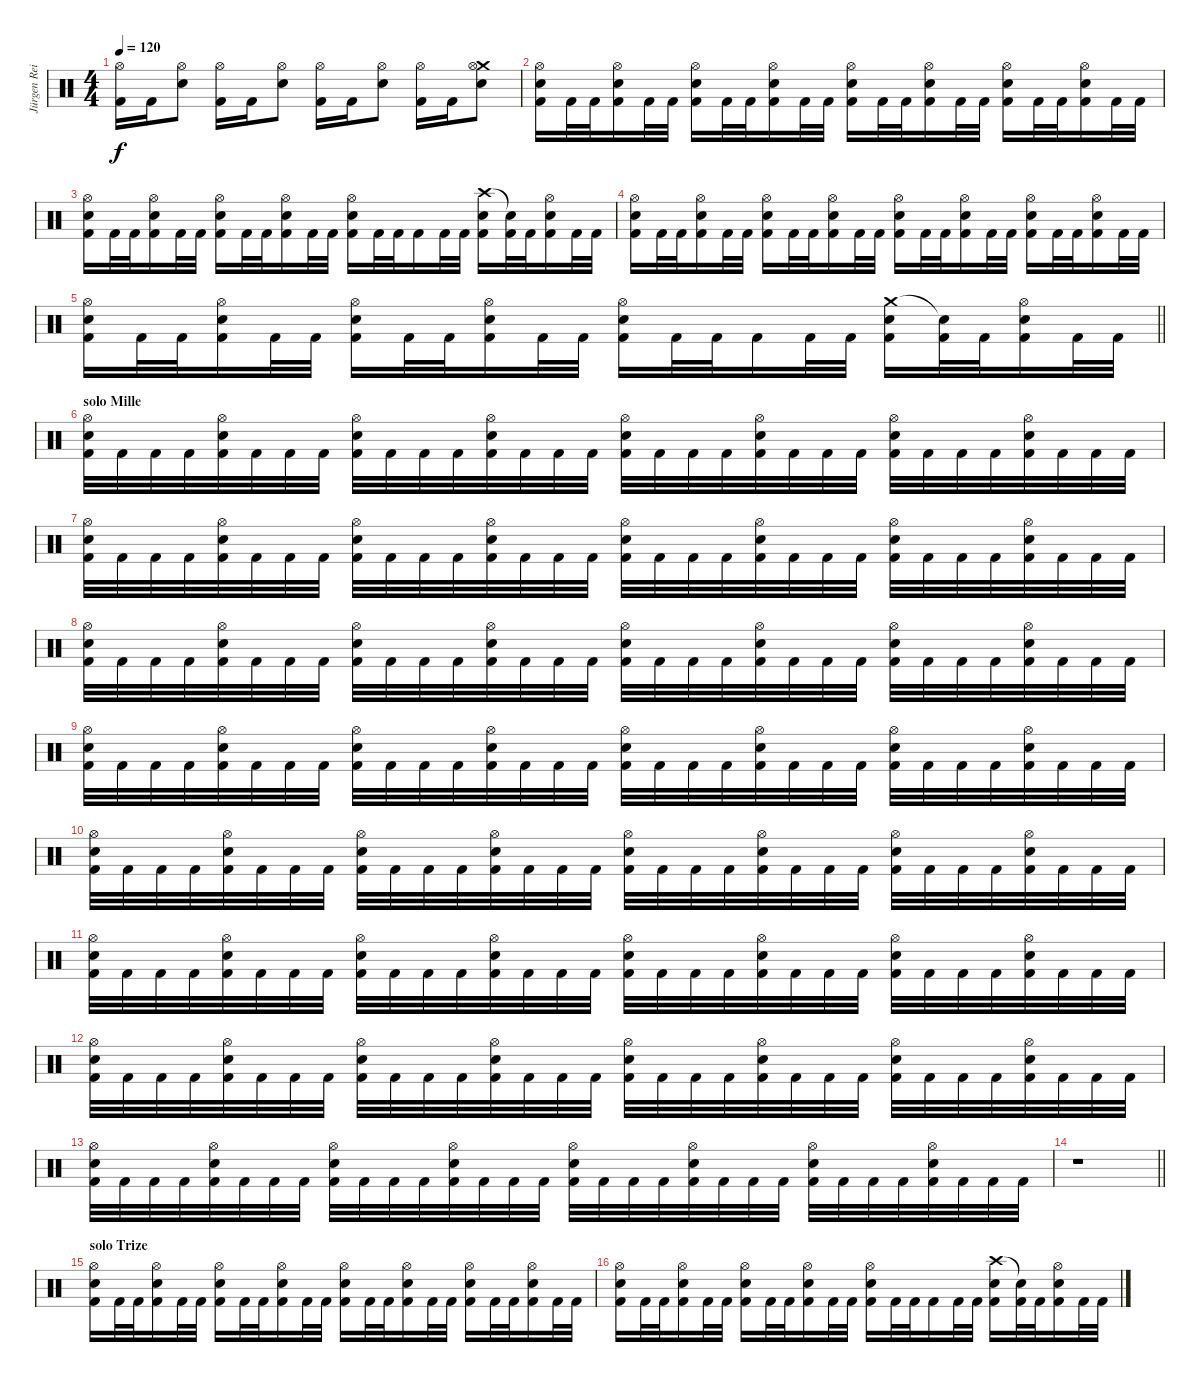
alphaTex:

\track ("Jürgen Reil" "Jürgen Rei") {instrument percussion}
\staff {score}
\articulation defaults
\ts (4 4)
\tempo 120
\clef neutral
\ks c
("Hi-Hat (open)" "Kick (hit) 2").16{dy f} "Kick (hit) 2".16 ("Hi-Hat (open)" "Electric Snare (hit)").8 ("Hi-Hat (open)" "Kick (hit) 2").16 "Kick (hit) 2".16 ("Hi-Hat (open)" "Electric Snare (hit)").8 ("Hi-Hat (open)" "Kick (hit) 2").16 "Kick (hit) 2".16 ("Hi-Hat (open)" "Electric Snare (hit)").8 ("Hi-Hat (open)" "Kick (hit) 2").16 "Kick (hit) 2".16 ("Crash medium (hit)" "Hi-Hat (open)" "Electric Snare (hit)").8 |
("Hi-Hat (open)" "Electric Snare (hit)" "Kick (hit) 2").16 "Kick (hit) 2".32 "Kick (hit) 2".32 ("Hi-Hat (open)" "Electric Snare (hit)" "Kick (hit) 2").16 "Kick (hit) 2".32 "Kick (hit) 2".32 ("Hi-Hat (open)" "Electric Snare (hit)" "Kick (hit) 2").16 "Kick (hit) 2".32 "Kick (hit) 2".32 ("Hi-Hat (open)" "Electric Snare (hit)" "Kick (hit) 2").16 "Kick (hit) 2".32 "Kick (hit) 2".32 ("Hi-Hat (open)" "Electric Snare (hit)" "Kick (hit) 2").16 "Kick (hit) 2".32 "Kick (hit) 2".32 ("Hi-Hat (open)" "Electric Snare (hit)" "Kick (hit) 2").16 "Kick (hit) 2".32 "Kick (hit) 2".32 ("Hi-Hat (open)" "Electric Snare (hit)" "Kick (hit) 2").16 "Kick (hit) 2".32 "Kick (hit) 2".32 ("Hi-Hat (open)" "Electric Snare (hit)" "Kick (hit) 2").16 "Kick (hit) 2".32 "Kick (hit) 2".32 |
("Hi-Hat (open)" "Electric Snare (hit)" "Kick (hit) 2").16 "Kick (hit) 2".32 "Kick (hit) 2".32 ("Hi-Hat (open)" "Electric Snare (hit)" "Kick (hit) 2").16 "Kick (hit) 2".32 "Kick (hit) 2".32 ("Hi-Hat (open)" "Electric Snare (hit)" "Kick (hit) 2").16 "Kick (hit) 2".32 "Kick (hit) 2".32 ("Hi-Hat (open)" "Electric Snare (hit)" "Kick (hit) 2").16 "Kick (hit) 2".32 "Kick (hit) 2".32 ("Hi-Hat (open)" "Electric Snare (hit)" "Kick (hit) 2").16 "Kick (hit) 2".32 "Kick (hit) 2".32 "Kick (hit) 2".16 "Kick (hit) 2".32 "Kick (hit) 2".32 ("Crash high (hit)" "Electric Snare (hit)" "Kick (hit) 2").16 ("Snare (hit)"{t} "Kick (hit) 2").32 "Kick (hit) 2".32 ("Hi-Hat (open)" "Electric Snare (hit)" "Kick (hit) 2").16 "Kick (hit) 2".32 "Kick (hit) 2".32 |
("Hi-Hat (open)" "Electric Snare (hit)" "Kick (hit) 2").16 "Kick (hit) 2".32 "Kick (hit) 2".32 ("Hi-Hat (open)" "Electric Snare (hit)" "Kick (hit) 2").16 "Kick (hit) 2".32 "Kick (hit) 2".32 ("Hi-Hat (open)" "Electric Snare (hit)" "Kick (hit) 2").16 "Kick (hit) 2".32 "Kick (hit) 2".32 ("Hi-Hat (open)" "Electric Snare (hit)" "Kick (hit) 2").16 "Kick (hit) 2".32 "Kick (hit) 2".32 ("Hi-Hat (open)" "Electric Snare (hit)" "Kick (hit) 2").16 "Kick (hit) 2".32 "Kick (hit) 2".32 ("Hi-Hat (open)" "Electric Snare (hit)" "Kick (hit) 2").16 "Kick (hit) 2".32 "Kick (hit) 2".32 ("Hi-Hat (open)" "Electric Snare (hit)" "Kick (hit) 2").16 "Kick (hit) 2".32 "Kick (hit) 2".32 ("Hi-Hat (open)" "Electric Snare (hit)" "Kick (hit) 2").16 "Kick (hit) 2".32 "Kick (hit) 2".32 |
\barLineRight lightlight
("Hi-Hat (open)" "Electric Snare (hit)" "Kick (hit) 2").16 "Kick (hit) 2".32 "Kick (hit) 2".32 ("Hi-Hat (open)" "Electric Snare (hit)" "Kick (hit) 2").16 "Kick (hit) 2".32 "Kick (hit) 2".32 ("Hi-Hat (open)" "Electric Snare (hit)" "Kick (hit) 2").16 "Kick (hit) 2".32 "Kick (hit) 2".32 ("Hi-Hat (open)" "Electric Snare (hit)" "Kick (hit) 2").16 "Kick (hit) 2".32 "Kick (hit) 2".32 ("Hi-Hat (open)" "Electric Snare (hit)" "Kick (hit) 2").16 "Kick (hit) 2".32 "Kick (hit) 2".32 "Kick (hit) 2".16 "Kick (hit) 2".32 "Kick (hit) 2".32 ("Crash medium (hit)" "Electric Snare (hit)" "Kick (hit) 2").16 ("Snare (hit)"{t} "Kick (hit) 2").32 "Kick (hit) 2".32 ("Hi-Hat (open)" "Electric Snare (hit)" "Kick (hit) 2").16 "Kick (hit) 2".32 "Kick (hit) 2".32 |
\section ("" "solo Mille")
("Hi-Hat (open)" "Electric Snare (hit)" "Kick (hit) 2").32 "Kick (hit) 2".32 "Kick (hit) 2".32 "Kick (hit) 2".32 ("Hi-Hat (open)" "Electric Snare (hit)" "Kick (hit) 2").32 "Kick (hit) 2".32 "Kick (hit) 2".32 "Kick (hit) 2".32 ("Hi-Hat (open)" "Electric Snare (hit)" "Kick (hit) 2").32 "Kick (hit) 2".32 "Kick (hit) 2".32 "Kick (hit) 2".32 ("Hi-Hat (open)" "Electric Snare (hit)" "Kick (hit) 2").32 "Kick (hit) 2".32 "Kick (hit) 2".32 "Kick (hit) 2".32 ("Hi-Hat (open)" "Electric Snare (hit)" "Kick (hit) 2").32 "Kick (hit) 2".32 "Kick (hit) 2".32 "Kick (hit) 2".32 ("Hi-Hat (open)" "Electric Snare (hit)" "Kick (hit) 2").32 "Kick (hit) 2".32 "Kick (hit) 2".32 "Kick (hit) 2".32 ("Hi-Hat (open)" "Electric Snare (hit)" "Kick (hit) 2").32 "Kick (hit) 2".32 "Kick (hit) 2".32 "Kick (hit) 2".32 ("Hi-Hat (open)" "Electric Snare (hit)" "Kick (hit) 2").32 "Kick (hit) 2".32 "Kick (hit) 2".32 "Kick (hit) 2".32 |
("Hi-Hat (open)" "Electric Snare (hit)" "Kick (hit) 2").32 "Kick (hit) 2".32 "Kick (hit) 2".32 "Kick (hit) 2".32 ("Hi-Hat (open)" "Electric Snare (hit)" "Kick (hit) 2").32 "Kick (hit) 2".32 "Kick (hit) 2".32 "Kick (hit) 2".32 ("Hi-Hat (open)" "Electric Snare (hit)" "Kick (hit) 2").32 "Kick (hit) 2".32 "Kick (hit) 2".32 "Kick (hit) 2".32 ("Hi-Hat (open)" "Electric Snare (hit)" "Kick (hit) 2").32 "Kick (hit) 2".32 "Kick (hit) 2".32 "Kick (hit) 2".32 ("Hi-Hat (open)" "Electric Snare (hit)" "Kick (hit) 2").32 "Kick (hit) 2".32 "Kick (hit) 2".32 "Kick (hit) 2".32 ("Hi-Hat (open)" "Electric Snare (hit)" "Kick (hit) 2").32 "Kick (hit) 2".32 "Kick (hit) 2".32 "Kick (hit) 2".32 ("Hi-Hat (open)" "Electric Snare (hit)" "Kick (hit) 2").32 "Kick (hit) 2".32 "Kick (hit) 2".32 "Kick (hit) 2".32 ("Hi-Hat (open)" "Electric Snare (hit)" "Kick (hit) 2").32 "Kick (hit) 2".32 "Kick (hit) 2".32 "Kick (hit) 2".32 |
("Hi-Hat (open)" "Electric Snare (hit)" "Kick (hit) 2").32 "Kick (hit) 2".32 "Kick (hit) 2".32 "Kick (hit) 2".32 ("Hi-Hat (open)" "Electric Snare (hit)" "Kick (hit) 2").32 "Kick (hit) 2".32 "Kick (hit) 2".32 "Kick (hit) 2".32 ("Hi-Hat (open)" "Electric Snare (hit)" "Kick (hit) 2").32 "Kick (hit) 2".32 "Kick (hit) 2".32 "Kick (hit) 2".32 ("Hi-Hat (open)" "Electric Snare (hit)" "Kick (hit) 2").32 "Kick (hit) 2".32 "Kick (hit) 2".32 "Kick (hit) 2".32 ("Hi-Hat (open)" "Electric Snare (hit)" "Kick (hit) 2").32 "Kick (hit) 2".32 "Kick (hit) 2".32 "Kick (hit) 2".32 ("Hi-Hat (open)" "Electric Snare (hit)" "Kick (hit) 2").32 "Kick (hit) 2".32 "Kick (hit) 2".32 "Kick (hit) 2".32 ("Hi-Hat (open)" "Electric Snare (hit)" "Kick (hit) 2").32 "Kick (hit) 2".32 "Kick (hit) 2".32 "Kick (hit) 2".32 ("Hi-Hat (open)" "Electric Snare (hit)" "Kick (hit) 2").32 "Kick (hit) 2".32 "Kick (hit) 2".32 "Kick (hit) 2".32 |
("Hi-Hat (open)" "Electric Snare (hit)" "Kick (hit) 2").32 "Kick (hit) 2".32 "Kick (hit) 2".32 "Kick (hit) 2".32 ("Hi-Hat (open)" "Electric Snare (hit)" "Kick (hit) 2").32 "Kick (hit) 2".32 "Kick (hit) 2".32 "Kick (hit) 2".32 ("Hi-Hat (open)" "Electric Snare (hit)" "Kick (hit) 2").32 "Kick (hit) 2".32 "Kick (hit) 2".32 "Kick (hit) 2".32 ("Hi-Hat (open)" "Electric Snare (hit)" "Kick (hit) 2").32 "Kick (hit) 2".32 "Kick (hit) 2".32 "Kick (hit) 2".32 ("Hi-Hat (open)" "Electric Snare (hit)" "Kick (hit) 2").32 "Kick (hit) 2".32 "Kick (hit) 2".32 "Kick (hit) 2".32 ("Hi-Hat (open)" "Electric Snare (hit)" "Kick (hit) 2").32 "Kick (hit) 2".32 "Kick (hit) 2".32 "Kick (hit) 2".32 ("Hi-Hat (open)" "Electric Snare (hit)" "Kick (hit) 2").32 "Kick (hit) 2".32 "Kick (hit) 2".32 "Kick (hit) 2".32 ("Hi-Hat (open)" "Electric Snare (hit)" "Kick (hit) 2").32 "Kick (hit) 2".32 "Kick (hit) 2".32 "Kick (hit) 2".32 |
("Hi-Hat (open)" "Electric Snare (hit)" "Kick (hit) 2").32 "Kick (hit) 2".32 "Kick (hit) 2".32 "Kick (hit) 2".32 ("Hi-Hat (open)" "Electric Snare (hit)" "Kick (hit) 2").32 "Kick (hit) 2".32 "Kick (hit) 2".32 "Kick (hit) 2".32 ("Hi-Hat (open)" "Electric Snare (hit)" "Kick (hit) 2").32 "Kick (hit) 2".32 "Kick (hit) 2".32 "Kick (hit) 2".32 ("Hi-Hat (open)" "Electric Snare (hit)" "Kick (hit) 2").32 "Kick (hit) 2".32 "Kick (hit) 2".32 "Kick (hit) 2".32 ("Hi-Hat (open)" "Electric Snare (hit)" "Kick (hit) 2").32 "Kick (hit) 2".32 "Kick (hit) 2".32 "Kick (hit) 2".32 ("Hi-Hat (open)" "Electric Snare (hit)" "Kick (hit) 2").32 "Kick (hit) 2".32 "Kick (hit) 2".32 "Kick (hit) 2".32 ("Hi-Hat (open)" "Electric Snare (hit)" "Kick (hit) 2").32 "Kick (hit) 2".32 "Kick (hit) 2".32 "Kick (hit) 2".32 ("Hi-Hat (open)" "Electric Snare (hit)" "Kick (hit) 2").32 "Kick (hit) 2".32 "Kick (hit) 2".32 "Kick (hit) 2".32 |
("Hi-Hat (open)" "Electric Snare (hit)" "Kick (hit) 2").32 "Kick (hit) 2".32 "Kick (hit) 2".32 "Kick (hit) 2".32 ("Hi-Hat (open)" "Electric Snare (hit)" "Kick (hit) 2").32 "Kick (hit) 2".32 "Kick (hit) 2".32 "Kick (hit) 2".32 ("Hi-Hat (open)" "Electric Snare (hit)" "Kick (hit) 2").32 "Kick (hit) 2".32 "Kick (hit) 2".32 "Kick (hit) 2".32 ("Hi-Hat (open)" "Electric Snare (hit)" "Kick (hit) 2").32 "Kick (hit) 2".32 "Kick (hit) 2".32 "Kick (hit) 2".32 ("Hi-Hat (open)" "Electric Snare (hit)" "Kick (hit) 2").32 "Kick (hit) 2".32 "Kick (hit) 2".32 "Kick (hit) 2".32 ("Hi-Hat (open)" "Electric Snare (hit)" "Kick (hit) 2").32 "Kick (hit) 2".32 "Kick (hit) 2".32 "Kick (hit) 2".32 ("Hi-Hat (open)" "Electric Snare (hit)" "Kick (hit) 2").32 "Kick (hit) 2".32 "Kick (hit) 2".32 "Kick (hit) 2".32 ("Hi-Hat (open)" "Electric Snare (hit)" "Kick (hit) 2").32 "Kick (hit) 2".32 "Kick (hit) 2".32 "Kick (hit) 2".32 |
("Hi-Hat (open)" "Electric Snare (hit)" "Kick (hit) 2").32 "Kick (hit) 2".32 "Kick (hit) 2".32 "Kick (hit) 2".32 ("Hi-Hat (open)" "Electric Snare (hit)" "Kick (hit) 2").32 "Kick (hit) 2".32 "Kick (hit) 2".32 "Kick (hit) 2".32 ("Hi-Hat (open)" "Electric Snare (hit)" "Kick (hit) 2").32 "Kick (hit) 2".32 "Kick (hit) 2".32 "Kick (hit) 2".32 ("Hi-Hat (open)" "Electric Snare (hit)" "Kick (hit) 2").32 "Kick (hit) 2".32 "Kick (hit) 2".32 "Kick (hit) 2".32 ("Hi-Hat (open)" "Electric Snare (hit)" "Kick (hit) 2").32 "Kick (hit) 2".32 "Kick (hit) 2".32 "Kick (hit) 2".32 ("Hi-Hat (open)" "Electric Snare (hit)" "Kick (hit) 2").32 "Kick (hit) 2".32 "Kick (hit) 2".32 "Kick (hit) 2".32 ("Hi-Hat (open)" "Electric Snare (hit)" "Kick (hit) 2").32 "Kick (hit) 2".32 "Kick (hit) 2".32 "Kick (hit) 2".32 ("Hi-Hat (open)" "Electric Snare (hit)" "Kick (hit) 2").32 "Kick (hit) 2".32 "Kick (hit) 2".32 "Kick (hit) 2".32 |
("Hi-Hat (open)" "Electric Snare (hit)" "Kick (hit) 2").32 "Kick (hit) 2".32 "Kick (hit) 2".32 "Kick (hit) 2".32 ("Hi-Hat (open)" "Electric Snare (hit)" "Kick (hit) 2").32 "Kick (hit) 2".32 "Kick (hit) 2".32 "Kick (hit) 2".32 ("Hi-Hat (open)" "Electric Snare (hit)" "Kick (hit) 2").32 "Kick (hit) 2".32 "Kick (hit) 2".32 "Kick (hit) 2".32 ("Hi-Hat (open)" "Electric Snare (hit)" "Kick (hit) 2").32 "Kick (hit) 2".32 "Kick (hit) 2".32 "Kick (hit) 2".32 ("Hi-Hat (open)" "Electric Snare (hit)" "Kick (hit) 2").32 "Kick (hit) 2".32 "Kick (hit) 2".32 "Kick (hit) 2".32 ("Hi-Hat (open)" "Electric Snare (hit)" "Kick (hit) 2").32 "Kick (hit) 2".32 "Kick (hit) 2".32 "Kick (hit) 2".32 ("Hi-Hat (open)" "Electric Snare (hit)" "Kick (hit) 2").32 "Kick (hit) 2".32 "Kick (hit) 2".32 "Kick (hit) 2".32 ("Hi-Hat (open)" "Electric Snare (hit)" "Kick (hit) 2").32 "Kick (hit) 2".32 "Kick (hit) 2".32 "Kick (hit) 2".32 |
\barLineRight lightlight
r.1 |
\section ("" "solo Trize")
("Hi-Hat (open)" "Electric Snare (hit)" "Kick (hit) 2").16 "Kick (hit) 2".32 "Kick (hit) 2".32 ("Hi-Hat (open)" "Electric Snare (hit)" "Kick (hit) 2").16 "Kick (hit) 2".32 "Kick (hit) 2".32 ("Hi-Hat (open)" "Electric Snare (hit)" "Kick (hit) 2").16 "Kick (hit) 2".32 "Kick (hit) 2".32 ("Hi-Hat (open)" "Electric Snare (hit)" "Kick (hit) 2").16 "Kick (hit) 2".32 "Kick (hit) 2".32 ("Hi-Hat (open)" "Electric Snare (hit)" "Kick (hit) 2").16 "Kick (hit) 2".32 "Kick (hit) 2".32 ("Hi-Hat (open)" "Electric Snare (hit)" "Kick (hit) 2").16 "Kick (hit) 2".32 "Kick (hit) 2".32 ("Hi-Hat (open)" "Electric Snare (hit)" "Kick (hit) 2").16 "Kick (hit) 2".32 "Kick (hit) 2".32 ("Hi-Hat (open)" "Electric Snare (hit)" "Kick (hit) 2").16 "Kick (hit) 2".32 "Kick (hit) 2".32 |
("Hi-Hat (open)" "Electric Snare (hit)" "Kick (hit) 2").16 "Kick (hit) 2".32 "Kick (hit) 2".32 ("Hi-Hat (open)" "Electric Snare (hit)" "Kick (hit) 2").16 "Kick (hit) 2".32 "Kick (hit) 2".32 ("Hi-Hat (open)" "Electric Snare (hit)" "Kick (hit) 2").16 "Kick (hit) 2".32 "Kick (hit) 2".32 ("Hi-Hat (open)" "Electric Snare (hit)" "Kick (hit) 2").16 "Kick (hit) 2".32 "Kick (hit) 2".32 ("Hi-Hat (open)" "Electric Snare (hit)" "Kick (hit) 2").16 "Kick (hit) 2".32 "Kick (hit) 2".32 "Kick (hit) 2".16 "Kick (hit) 2".32 "Kick (hit) 2".32 ("Crash high (hit)" "Electric Snare (hit)" "Kick (hit) 2").16 ("Snare (hit)"{t} "Kick (hit) 2").32 "Kick (hit) 2".32 ("Hi-Hat (open)" "Electric Snare (hit)" "Kick (hit) 2").16 "Kick (hit) 2".32 "Kick (hit) 2".32
